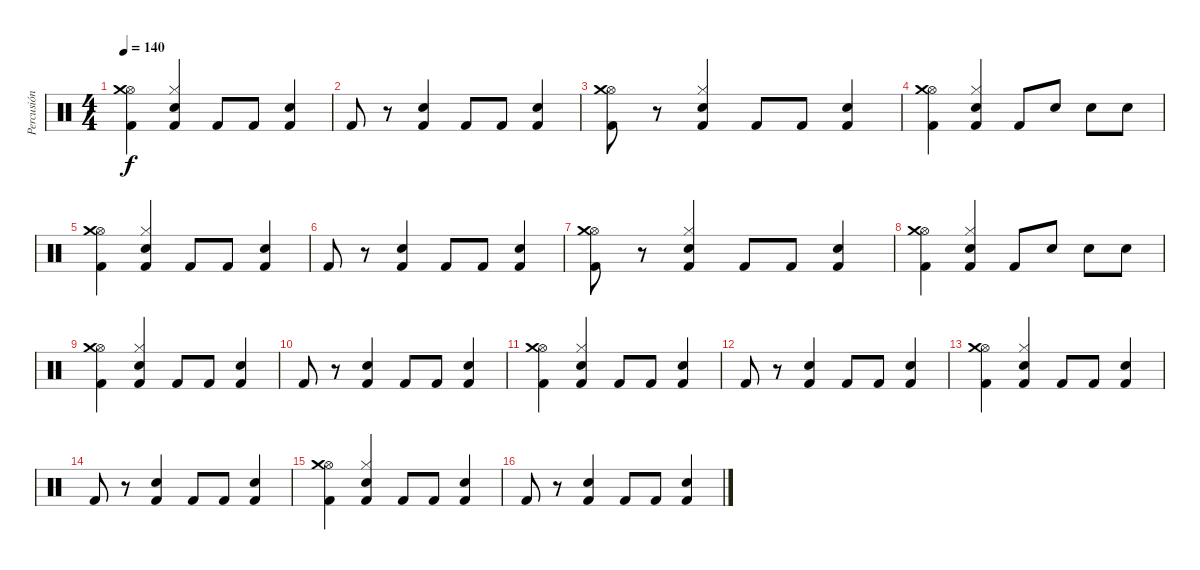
\track ("Percusión" "Percusión") {instrument percussion}
\staff {score}
\articulation defaults
\ts (4 4)
\tempo 140
\clef neutral
\ks c
("Hi-Hat (open)" "Crash medium (hit)" "Kick (hit) 2").4{dy f} ("Hi-Hat (closed)" "Snare (hit) 2" "Kick (hit) 2").4 "Kick (hit) 2".8 "Kick (hit) 2".8 ("Snare (hit) 2" "Kick (hit) 2").4 |
"Kick (hit) 2".8 r.8 ("Snare (hit) 2" "Kick (hit) 2").4 "Kick (hit) 2".8 "Kick (hit) 2".8 ("Snare (hit) 2" "Kick (hit) 2").4 |
("Hi-Hat (open)" "Crash medium (hit)" "Kick (hit) 2").8 r.8 ("Hi-Hat (closed)" "Snare (hit) 2" "Kick (hit) 2").4 "Kick (hit) 2".8 "Kick (hit) 2".8 ("Snare (hit) 2" "Kick (hit) 2").4 |
("Hi-Hat (open)" "Crash medium (hit)" "Kick (hit) 2").4 ("Hi-Hat (closed)" "Snare (hit) 2" "Kick (hit) 2").4 "Kick (hit) 2".8 "Snare (hit) 2".8 "Snare (hit) 2".8 "Snare (hit) 2".8 |
("Hi-Hat (open)" "Crash medium (hit)" "Kick (hit) 2").4 ("Hi-Hat (closed)" "Snare (hit) 2" "Kick (hit) 2").4 "Kick (hit) 2".8 "Kick (hit) 2".8 ("Snare (hit) 2" "Kick (hit) 2").4 |
"Kick (hit) 2".8 r.8 ("Snare (hit) 2" "Kick (hit) 2").4 "Kick (hit) 2".8 "Kick (hit) 2".8 ("Snare (hit) 2" "Kick (hit) 2").4 |
("Hi-Hat (open)" "Crash medium (hit)" "Kick (hit) 2").8 r.8 ("Hi-Hat (closed)" "Snare (hit) 2" "Kick (hit) 2").4 "Kick (hit) 2".8 "Kick (hit) 2".8 ("Snare (hit) 2" "Kick (hit) 2").4 |
("Hi-Hat (open)" "Crash medium (hit)" "Kick (hit) 2").4 ("Hi-Hat (closed)" "Snare (hit) 2" "Kick (hit) 2").4 "Kick (hit) 2".8 "Snare (hit) 2".8 "Snare (hit) 2".8 "Snare (hit) 2".8 |
("Hi-Hat (open)" "Crash medium (hit)" "Kick (hit) 2").4 ("Hi-Hat (closed)" "Snare (hit) 2" "Kick (hit) 2").4 "Kick (hit) 2".8 "Kick (hit) 2".8 ("Snare (hit) 2" "Kick (hit) 2").4 |
"Kick (hit) 2".8 r.8 ("Snare (hit) 2" "Kick (hit) 2").4 "Kick (hit) 2".8 "Kick (hit) 2".8 ("Snare (hit) 2" "Kick (hit) 2").4 |
("Hi-Hat (open)" "Crash medium (hit)" "Kick (hit) 2").4 ("Hi-Hat (closed)" "Snare (hit) 2" "Kick (hit) 2").4 "Kick (hit) 2".8 "Kick (hit) 2".8 ("Snare (hit) 2" "Kick (hit) 2").4 |
"Kick (hit) 2".8 r.8 ("Snare (hit) 2" "Kick (hit) 2").4 "Kick (hit) 2".8 "Kick (hit) 2".8 ("Snare (hit) 2" "Kick (hit) 2").4 |
("Hi-Hat (open)" "Crash medium (hit)" "Kick (hit) 2").4 ("Hi-Hat (closed)" "Snare (hit) 2" "Kick (hit) 2").4 "Kick (hit) 2".8 "Kick (hit) 2".8 ("Snare (hit) 2" "Kick (hit) 2").4 |
"Kick (hit) 2".8 r.8 ("Snare (hit) 2" "Kick (hit) 2").4 "Kick (hit) 2".8 "Kick (hit) 2".8 ("Snare (hit) 2" "Kick (hit) 2").4 |
("Hi-Hat (open)" "Crash medium (hit)" "Kick (hit) 2").4 ("Hi-Hat (closed)" "Snare (hit) 2" "Kick (hit) 2").4 "Kick (hit) 2".8 "Kick (hit) 2".8 ("Snare (hit) 2" "Kick (hit) 2").4 |
"Kick (hit) 2".8 r.8 ("Snare (hit) 2" "Kick (hit) 2").4 "Kick (hit) 2".8 "Kick (hit) 2".8 ("Snare (hit) 2" "Kick (hit) 2").4
